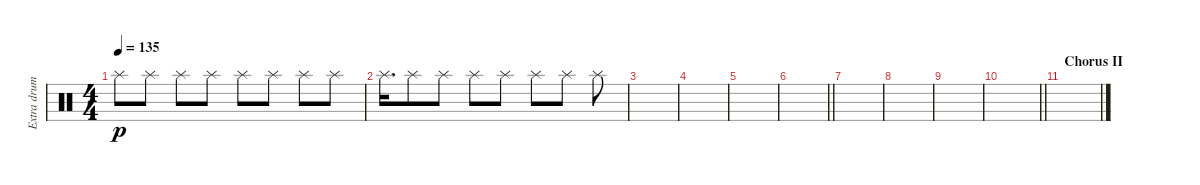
\track ("Extra drums" "Extra drum") {instrument percussion}
\staff {score}
\articulation defaults
\ts (4 4)
\tempo 135
\clef neutral
\ks c "Splash (hit)".8{dy p} "Splash (hit)".8 "Splash (hit)".8 "Splash (hit)".8 "Splash (hit)".8 "Splash (hit)".8 "Splash (hit)".8 "Splash (hit)".8
|
"Splash (hit)".16{d} "Splash (hit)".8 "Splash (hit)".8 "Splash (hit)".8 "Splash (hit)".8 "Splash (hit)".8 "Splash (hit)".8 "Splash (hit)".8 |
|
|
|
\barLineRight lightlight
|
|
|
|
\barLineRight lightlight
|
\section ("" "Chorus II")
